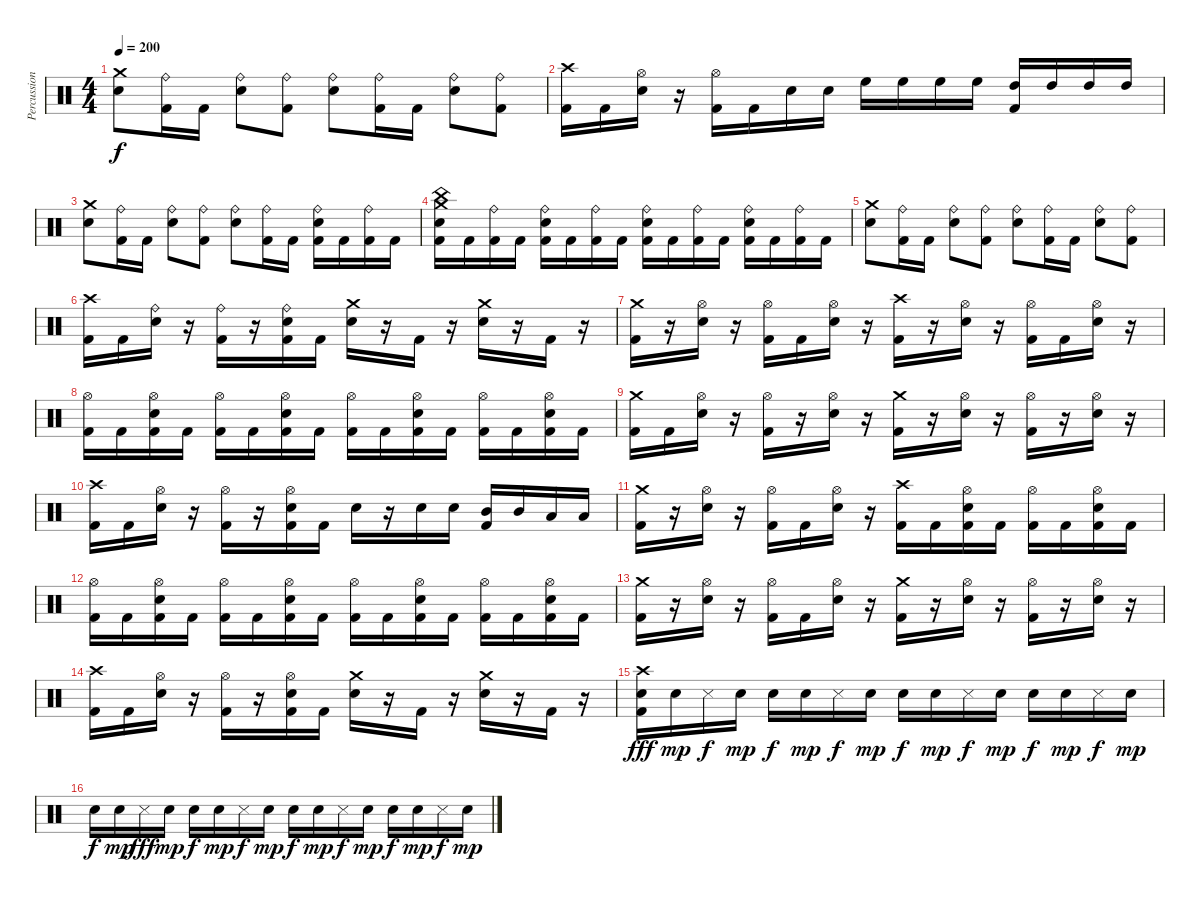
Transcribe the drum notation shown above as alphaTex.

\track ("Percussion" "Percussion") {instrument percussion}
\staff {score}
\articulation defaults
\ts (4 4)
\tempo 200
\clef neutral
\ks c
("Crash medium (hit)" "Snare (hit) 2").8{dy f} ("Ride (bell)" "Kick (hit) 2").16 "Kick (hit) 2".16 ("Ride (bell)" "Snare (hit) 2").8 ("Ride (bell)" "Kick (hit) 2").8 ("Ride (bell)" "Snare (hit) 2").8 ("Ride (bell)" "Kick (hit) 2").16 "Kick (hit) 2".16 ("Ride (bell)" "Snare (hit) 2").8 ("Ride (bell)" "Kick (hit) 2").8 |
("Crash high (hit)" "Kick (hit) 2").16 "Kick (hit) 2".16 ("Hi-Hat (open)" "Snare (hit) 2").16 r.16 ("Hi-Hat (open)" "Kick (hit) 2").16 "Kick (hit) 2".16 "Snare (hit) 2".16 "Snare (hit) 2".16 "High Floor Tom (hit)".16 "High Floor Tom (hit)".16 "High Floor Tom (hit)".16 "High Floor Tom (hit)".16 ("High Tom (hit)" "Kick (hit) 2").16 "High Tom (hit)".16 "High Tom (hit)".16 "High Tom (hit)".16 |
("Crash medium (hit)" "Snare (hit) 2").8 ("Ride (bell)" "Kick (hit) 2").16 "Kick (hit) 2".16 ("Ride (bell)" "Snare (hit) 2").8 ("Ride (bell)" "Kick (hit) 2").8 ("Ride (bell)" "Snare (hit) 2").8 ("Ride (bell)" "Kick (hit) 2").16 "Kick (hit) 2".16 ("Ride (bell)" "Snare (hit) 2" "Kick (hit) 2").16 "Kick (hit) 2".16 ("Ride (bell)" "Kick (hit) 2").16 "Kick (hit) 2".16 |
("China (hit)" "Crash medium (hit)" "Snare (hit) 2" "Kick (hit) 2").16 "Kick (hit) 2".16 ("Ride (bell)" "Kick (hit) 2").16 "Kick (hit) 2".16 ("Ride (bell)" "Snare (hit) 2" "Kick (hit) 2").16 "Kick (hit) 2".16 ("Ride (bell)" "Kick (hit) 2").16 "Kick (hit) 2".16 ("Ride (bell)" "Snare (hit) 2" "Kick (hit) 2").16 "Kick (hit) 2".16 ("Ride (bell)" "Kick (hit) 2").16 "Kick (hit) 2".16 ("Ride (bell)" "Snare (hit) 2" "Kick (hit) 2").16 "Kick (hit) 2".16 ("Ride (bell)" "Kick (hit) 2").16 "Kick (hit) 2".16 |
("Crash medium (hit)" "Snare (hit) 2").8 ("Ride (bell)" "Kick (hit) 2").16 "Kick (hit) 2".16 ("Ride (bell)" "Snare (hit) 2").8 ("Ride (bell)" "Kick (hit) 2").8 ("Ride (bell)" "Snare (hit) 2").8 ("Ride (bell)" "Kick (hit) 2").16 "Kick (hit) 2".16 ("Ride (bell)" "Snare (hit) 2").8 ("Ride (bell)" "Kick (hit) 2").8 |
("Crash high (hit)" "Kick (hit) 2").16 "Kick (hit) 2".16 ("Ride (bell)" "Snare (hit) 2").16 r.16 ("Ride (bell)" "Kick (hit) 2").16 r.16 ("Ride (bell)" "Snare (hit) 2" "Kick (hit) 2").16 "Kick (hit) 2".16 ("Crash medium (hit)" "Snare (hit) 2").16 r.16 "Kick (hit) 2".16 r.16 ("Crash medium (hit)" "Snare (hit) 2").16 r.16 "Kick (hit) 2".16 r.16 |
("Crash medium (hit)" "Kick (hit) 2").16 r.16 ("Hi-Hat (open)" "Snare (hit) 2").16 r.16 ("Hi-Hat (open)" "Kick (hit) 2").16 "Kick (hit) 2".16 ("Hi-Hat (open)" "Snare (hit) 2").16 r.16 ("Crash high (hit)" "Kick (hit) 2").16 r.16 ("Hi-Hat (open)" "Snare (hit) 2").16 r.16 ("Hi-Hat (open)" "Kick (hit) 2").16 "Kick (hit) 2".16 ("Hi-Hat (open)" "Snare (hit) 2").16 r.16 |
("Hi-Hat (open)" "Kick (hit) 2").16 "Kick (hit) 2".16 ("Hi-Hat (open)" "Snare (hit) 2" "Kick (hit) 2").16 "Kick (hit) 2".16 ("Hi-Hat (open)" "Kick (hit) 2").16 "Kick (hit) 2".16 ("Hi-Hat (open)" "Snare (hit) 2" "Kick (hit) 2").16 "Kick (hit) 2".16 ("Hi-Hat (open)" "Kick (hit) 2").16 "Kick (hit) 2".16 ("Hi-Hat (open)" "Snare (hit) 2" "Kick (hit) 2").16 "Kick (hit) 2".16 ("Hi-Hat (open)" "Kick (hit) 2").16 "Kick (hit) 2".16 ("Hi-Hat (open)" "Snare (hit) 2" "Kick (hit) 2").16 "Kick (hit) 2".16 |
("Crash medium (hit)" "Kick (hit) 2").16 "Kick (hit) 2".16 ("Hi-Hat (open)" "Snare (hit) 2").16 r.16 ("Hi-Hat (open)" "Kick (hit) 2").16 r.16 ("Hi-Hat (open)" "Snare (hit) 2").16 r.16 ("Crash medium (hit)" "Kick (hit) 2").16 r.16 ("Hi-Hat (open)" "Snare (hit) 2").16 r.16 ("Hi-Hat (open)" "Kick (hit) 2").16 r.16 ("Hi-Hat (open)" "Snare (hit) 2").16 r.16 |
("Crash high (hit)" "Kick (hit) 2").16 "Kick (hit) 2".16 ("Hi-Hat (open)" "Snare (hit) 2").16 r.16 ("Hi-Hat (open)" "Kick (hit) 2").16 r.16 ("Hi-Hat (open)" "Snare (hit) 2" "Kick (hit) 2").16 "Kick (hit) 2".16 "Snare (hit) 2".16 r.16 "Snare (hit) 2".16 "Snare (hit) 2".16 ("Mid Tom (hit)" "Kick (hit) 2").16 "Mid Tom (hit)".16 "Low Tom (hit)".16 "Low Tom (hit)".16 |
("Crash medium (hit)" "Kick (hit) 2").16 r.16 ("Hi-Hat (open)" "Snare (hit) 2").16 r.16 ("Hi-Hat (open)" "Kick (hit) 2").16 "Kick (hit) 2".16 ("Hi-Hat (open)" "Snare (hit) 2").16 r.16 ("Crash high (hit)" "Kick (hit) 2").16 "Kick (hit) 2".16 ("Hi-Hat (open)" "Snare (hit) 2" "Kick (hit) 2").16 "Kick (hit) 2".16 ("Hi-Hat (open)" "Kick (hit) 2").16 "Kick (hit) 2".16 ("Hi-Hat (open)" "Snare (hit) 2" "Kick (hit) 2").16 "Kick (hit) 2".16 |
("Hi-Hat (open)" "Kick (hit) 2").16 "Kick (hit) 2".16 ("Hi-Hat (open)" "Snare (hit) 2" "Kick (hit) 2").16 "Kick (hit) 2".16 ("Hi-Hat (open)" "Kick (hit) 2").16 "Kick (hit) 2".16 ("Hi-Hat (open)" "Snare (hit) 2" "Kick (hit) 2").16 "Kick (hit) 2".16 ("Hi-Hat (open)" "Kick (hit) 2").16 "Kick (hit) 2".16 ("Hi-Hat (open)" "Snare (hit) 2" "Kick (hit) 2").16 "Kick (hit) 2".16 ("Hi-Hat (open)" "Kick (hit) 2").16 "Kick (hit) 2".16 ("Hi-Hat (open)" "Snare (hit) 2" "Kick (hit) 2").16 "Kick (hit) 2".16 |
("Crash medium (hit)" "Kick (hit) 2").16 r.16 ("Hi-Hat (open)" "Snare (hit) 2").16 r.16 ("Hi-Hat (open)" "Kick (hit) 2").16 "Kick (hit) 2".16 ("Hi-Hat (open)" "Snare (hit) 2").16 r.16 ("Crash medium (hit)" "Kick (hit) 2").16 r.16 ("Hi-Hat (open)" "Snare (hit) 2").16 r.16 ("Hi-Hat (open)" "Kick (hit) 2").16 r.16 ("Hi-Hat (open)" "Snare (hit) 2").16 r.16 |
("Crash high (hit)" "Kick (hit) 2").16 "Kick (hit) 2".16 ("Hi-Hat (open)" "Snare (hit) 2").16 r.16 ("Hi-Hat (open)" "Kick (hit) 2").16 r.16 ("Hi-Hat (open)" "Snare (hit) 2" "Kick (hit) 2").16 "Kick (hit) 2".16 ("Crash medium (hit)" "Snare (hit) 2").16 r.16 "Kick (hit) 2".16 r.16 ("Crash medium (hit)" "Snare (hit) 2").16 r.16 "Kick (hit) 2".16 r.16 |
("Crash high (hit)" "Snare (hit) 2" "Kick (hit) 2").16{dy fff} "Snare (hit) 2".16{dy mp} "Snare (side stick) 3".16{dy f} "Snare (hit) 2".16{dy mp} "Snare (hit) 2".16{dy f} "Snare (hit) 2".16{dy mp} "Snare (side stick) 3".16{dy f} "Snare (hit) 2".16{dy mp} "Snare (hit) 2".16{dy f} "Snare (hit) 2".16{dy mp} "Snare (side stick) 3".16{dy f} "Snare (hit) 2".16{dy mp} "Snare (hit) 2".16{dy f} "Snare (hit) 2".16{dy mp} "Snare (side stick) 3".16{dy f} "Snare (hit) 2".16{dy mp} |
"Snare (hit) 2".16{dy f} "Snare (hit) 2".16{dy mp} "Snare (side stick) 3".16{dy fff} "Snare (hit) 2".16{dy mp} "Snare (hit) 2".16{dy f} "Snare (hit) 2".16{dy mp} "Snare (side stick) 3".16{dy f} "Snare (hit) 2".16{dy mp} "Snare (hit) 2".16{dy f} "Snare (hit) 2".16{dy mp} "Snare (side stick) 3".16{dy f} "Snare (hit) 2".16{dy mp} "Snare (hit) 2".16{dy f} "Snare (hit) 2".16{dy mp} "Snare (side stick) 3".16{dy f} "Snare (hit) 2".16{dy mp}
